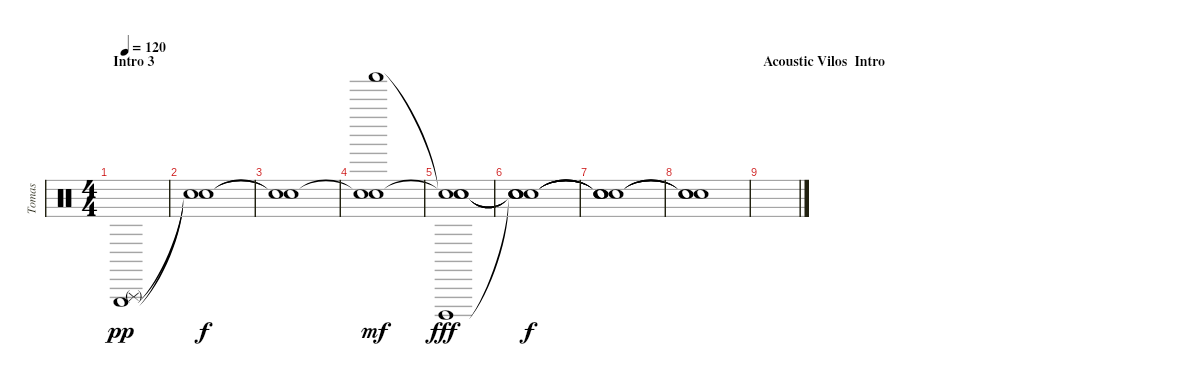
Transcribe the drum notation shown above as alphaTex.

\track ("Tomas" "Tomas") {instrument percussion}
\staff {score}
\articulation defaults
\ts (4 4)
\section ("" "Intro 3")
\tempo 120
\clef neutral
\ks c
("Triangle (hit)" "Triangle (rnute)").1{dy pp} |
("Snare (hit)"{t} "Snare (hit)"{t}).1{dy f} |
("Snare (hit)"{t} "Snare (hit)"{t}).1 |
("Shaker (hit)" "Snare (hit)"{t} "Snare (hit)").1{dy mf} |
("Snare (hit)"{t} "Cuica (open)" "Snare (hit)"{t} "Snare (hit)").1{dy fff} |
("Snare (hit)"{t} "Snare (hit)"{t} "Snare (hit)"{t} "Snare (hit)"{t}).1{dy f} |
("Snare (hit)"{t} "Snare (hit)"{t} "Snare (hit)"{t} "Snare (hit)"{t}).1 |
("Snare (hit)"{t} "Snare (hit)"{t} "Snare (hit)"{t}).1 |
\section ("" "Acoustic Vilos  Intro")
